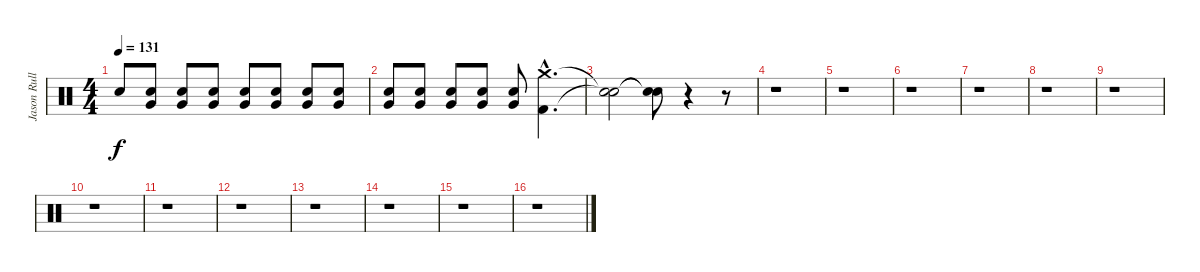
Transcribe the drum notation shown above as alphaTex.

\track ("Jason Rullo (Drums)" "Jason Rull") {instrument percussion}
\staff {score}
\articulation defaults
\ts (4 4)
\tempo 131
\clef neutral
\ks c "Snare (hit)"{t}.8{dy f}
("Very Low Tom (hit)" "Electric Snare (hit)").8{volume 6} ("Very Low Tom (hit)" "Electric Snare (hit)").8{volume 7} ("Very Low Tom (hit)" "Electric Snare (hit)").8{volume 8} ("Very Low Tom (hit)" "Electric Snare (hit)").8{volume 9} ("Very Low Tom (hit)" "Electric Snare (hit)").8{volume 9} ("Very Low Tom (hit)" "Electric Snare (hit)").8{volume 10} ("Very Low Tom (hit)" "Electric Snare (hit)").8{volume 11} |
("Very Low Tom (hit)" "Electric Snare (hit)").8{volume 12} ("Very Low Tom (hit)" "Electric Snare (hit)").8{volume 13} ("Very Low Tom (hit)" "Electric Snare (hit)").8{volume 13} ("Very Low Tom (hit)" "Electric Snare (hit)").8{volume 14} ("Very Low Tom (hit)" "Electric Snare (hit)").8{volume 15} ("Crash medium (hit)"{hac} "Kick (hit) 2"{hac}).4{d volume 16} |
("Snare (hit)"{t} "Snare (hit)"{t}).2 ("Snare (hit)"{t} "Snare (hit)"{t}).8 r.4 r.8 |
r.1 |
r.1 |
r.1 |
r.1 |
r.1 |
r.1 |
r.1 |
r.1 |
r.1 |
r.1 |
r.1 |
r.1 |
r.1
